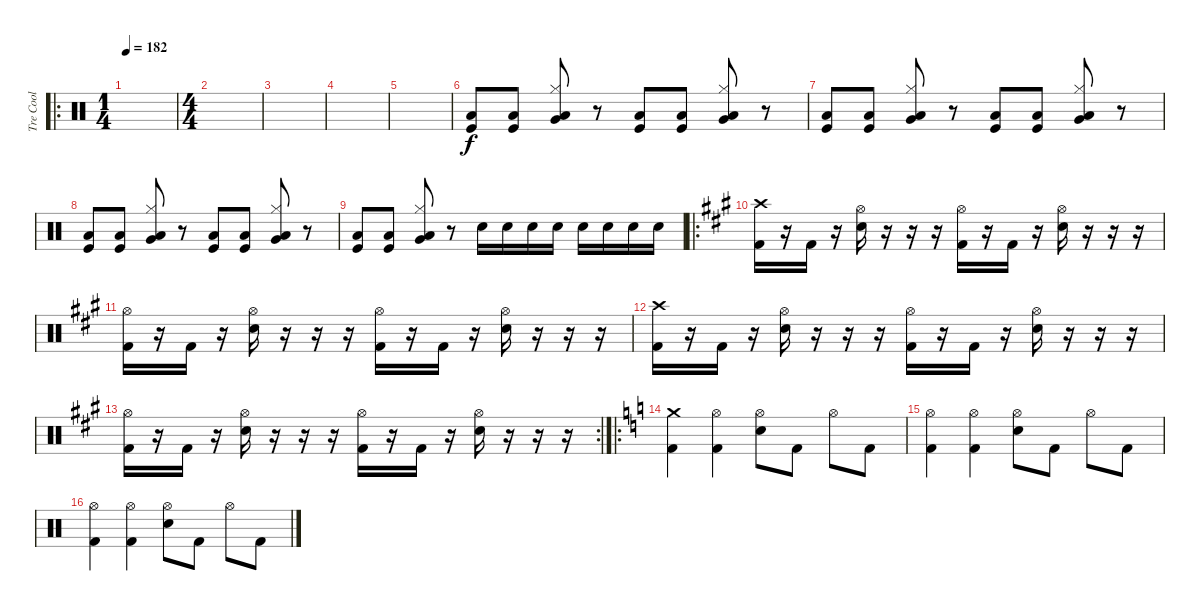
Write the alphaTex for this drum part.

\track ("Tre Cool" "Tre Cool") {instrument percussion}
\staff {score}
\articulation defaults
\ro
\ts (1 4)
\tempo 182
\clef neutral
\ks c
|
\ts (4 4)
|
|
|
|
("Low Floor Tom (hit)" "Kick (hit)").8 ("Low Floor Tom (hit)" "Kick (hit)").8 ("Low Tom (hit)" "Hi-Hat (closed)" "Very Low Tom (hit)").8 r.8 ("Low Floor Tom (hit)" "Kick (hit)").8 ("Low Floor Tom (hit)" "Kick (hit)").8 ("Low Tom (hit)" "Hi-Hat (closed)" "Very Low Tom (hit)").8 r.8 |
("Low Floor Tom (hit)" "Kick (hit)").8 ("Low Floor Tom (hit)" "Kick (hit)").8 ("Low Tom (hit)" "Hi-Hat (closed)" "Very Low Tom (hit)").8 r.8 ("Low Floor Tom (hit)" "Kick (hit)").8 ("Low Floor Tom (hit)" "Kick (hit)").8 ("Low Tom (hit)" "Hi-Hat (closed)" "Very Low Tom (hit)").8 r.8 |
("Low Floor Tom (hit)" "Kick (hit)").8 ("Low Floor Tom (hit)" "Kick (hit)").8 ("Low Tom (hit)" "Hi-Hat (closed)" "Very Low Tom (hit)").8 r.8 ("Low Floor Tom (hit)" "Kick (hit)").8 ("Low Floor Tom (hit)" "Kick (hit)").8 ("Low Tom (hit)" "Hi-Hat (closed)" "Very Low Tom (hit)").8 r.8 |
("Low Floor Tom (hit)" "Kick (hit)").8 ("Low Floor Tom (hit)" "Kick (hit)").8 ("Low Tom (hit)" "Hi-Hat (closed)" "Very Low Tom (hit)").8 r.8 "Snare (hit) 2".16 "Snare (hit) 2".16 "Snare (hit) 2".16 "Snare (hit) 2".16 "Snare (hit) 2".16 "Snare (hit) 2".16 "Snare (hit) 2".16 "Snare (hit) 2".16 |
\ro
\ks a
("Crash high (hit)" "Kick (hit) 2").16 r.16 "Kick (hit) 2".16 r.16 ("Hi-Hat (open)" "Snare (hit) 2").16 r.16 r.16 r.16 ("Hi-Hat (open)" "Kick (hit) 2").16 r.16 "Kick (hit) 2".16 r.16 ("Hi-Hat (open)" "Snare (hit) 2").16 r.16 r.16 r.16 |
("Hi-Hat (open)" "Kick (hit) 2").16 r.16 "Kick (hit) 2".16 r.16 ("Hi-Hat (open)" "Snare (hit) 2").16 r.16 r.16 r.16 ("Hi-Hat (open)" "Kick (hit) 2").16 r.16 "Kick (hit) 2".16 r.16 ("Hi-Hat (open)" "Snare (hit) 2").16 r.16 r.16 r.16 |
("Crash high (hit)" "Kick (hit) 2").16 r.16 "Kick (hit) 2".16 r.16 ("Hi-Hat (open)" "Snare (hit) 2").16 r.16 r.16 r.16 ("Hi-Hat (open)" "Kick (hit) 2").16 r.16 "Kick (hit) 2".16 r.16 ("Hi-Hat (open)" "Snare (hit) 2").16 r.16 r.16 r.16 |
\rc 2
("Hi-Hat (open)" "Kick (hit) 2").16 r.16 "Kick (hit) 2".16 r.16 ("Hi-Hat (open)" "Snare (hit) 2").16 r.16 r.16 r.16 ("Hi-Hat (open)" "Kick (hit) 2").16 r.16 "Kick (hit) 2".16 r.16 ("Hi-Hat (open)" "Snare (hit) 2").16 r.16 r.16 r.16 |
\ro
\ks c
("Crash medium (hit)" "Kick (hit) 2").4 ("Hi-Hat (open)" "Kick (hit) 2").4 ("Electric Snare (hit)" "Hi-Hat (open)").8 "Kick (hit) 2".8 "Hi-Hat (open)".8 "Kick (hit) 2".8 |
("Hi-Hat (open)" "Kick (hit) 2").4 ("Hi-Hat (open)" "Kick (hit) 2").4 ("Electric Snare (hit)" "Hi-Hat (open)").8 "Kick (hit) 2".8 "Hi-Hat (open)".8 "Kick (hit) 2".8 |
("Hi-Hat (open)" "Kick (hit) 2").4 ("Hi-Hat (open)" "Kick (hit) 2").4 ("Electric Snare (hit)" "Hi-Hat (open)").8 "Kick (hit) 2".8 "Hi-Hat (open)".8 "Kick (hit) 2".8
